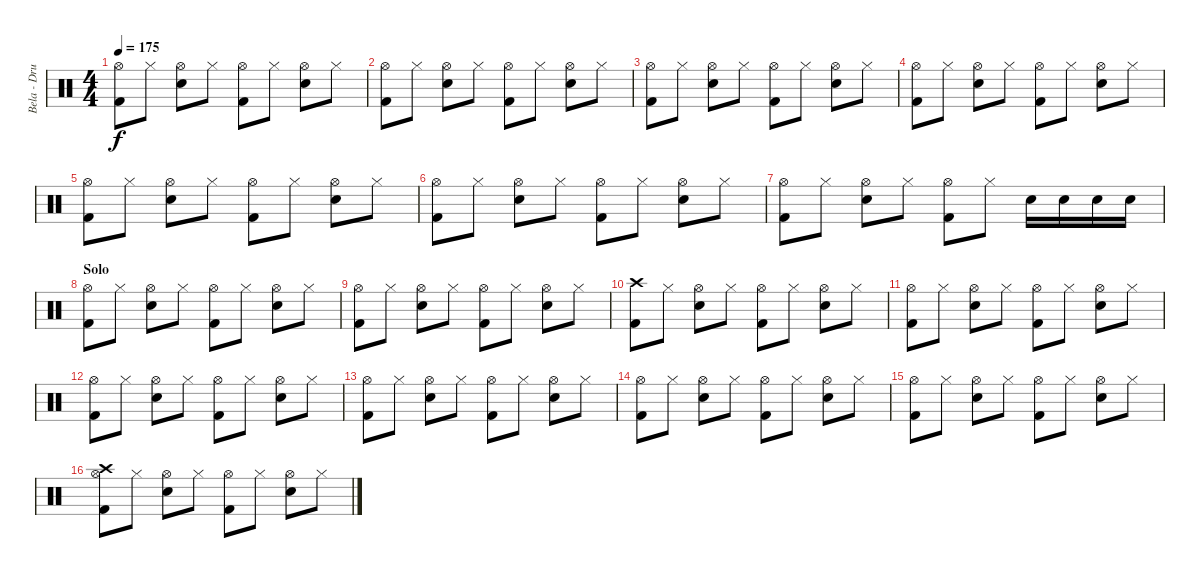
\track ("Bela - Drums" "Bela - Dru") {instrument percussion}
\staff {score}
\articulation defaults
\ts (4 4)
\tempo 175
\clef neutral
\ks c
("Hi-Hat (open)" "Kick (hit) 2").8{dy f} "Hi-Hat (closed)".8 ("Hi-Hat (open)" "Electric Snare (hit)").8 "Hi-Hat (closed)".8 ("Hi-Hat (open)" "Kick (hit) 2").8 "Hi-Hat (closed)".8 ("Hi-Hat (open)" "Electric Snare (hit)").8 "Hi-Hat (closed)".8 |
("Hi-Hat (open)" "Kick (hit) 2").8 "Hi-Hat (closed)".8 ("Hi-Hat (open)" "Electric Snare (hit)").8 "Hi-Hat (closed)".8 ("Hi-Hat (open)" "Kick (hit) 2").8 "Hi-Hat (closed)".8 ("Hi-Hat (open)" "Electric Snare (hit)").8 "Hi-Hat (closed)".8 |
("Hi-Hat (open)" "Kick (hit) 2").8 "Hi-Hat (closed)".8 ("Hi-Hat (open)" "Electric Snare (hit)").8 "Hi-Hat (closed)".8 ("Hi-Hat (open)" "Kick (hit) 2").8 "Hi-Hat (closed)".8 ("Hi-Hat (open)" "Electric Snare (hit)").8 "Hi-Hat (closed)".8 |
("Hi-Hat (open)" "Kick (hit) 2").8 "Hi-Hat (closed)".8 ("Hi-Hat (open)" "Electric Snare (hit)").8 "Hi-Hat (closed)".8 ("Hi-Hat (open)" "Kick (hit) 2").8 "Hi-Hat (closed)".8 ("Hi-Hat (open)" "Electric Snare (hit)").8 "Hi-Hat (closed)".8 |
("Hi-Hat (open)" "Kick (hit) 2").8 "Hi-Hat (closed)".8 ("Hi-Hat (open)" "Electric Snare (hit)").8 "Hi-Hat (closed)".8 ("Hi-Hat (open)" "Kick (hit) 2").8 "Hi-Hat (closed)".8 ("Hi-Hat (open)" "Electric Snare (hit)").8 "Hi-Hat (closed)".8 |
("Hi-Hat (open)" "Kick (hit) 2").8 "Hi-Hat (closed)".8 ("Hi-Hat (open)" "Electric Snare (hit)").8 "Hi-Hat (closed)".8 ("Hi-Hat (open)" "Kick (hit) 2").8 "Hi-Hat (closed)".8 ("Hi-Hat (open)" "Electric Snare (hit)").8 "Hi-Hat (closed)".8 |
("Hi-Hat (open)" "Kick (hit) 2").8 "Hi-Hat (closed)".8 ("Hi-Hat (open)" "Electric Snare (hit)").8 "Hi-Hat (closed)".8 ("Hi-Hat (open)" "Kick (hit) 2").8 "Hi-Hat (closed)".8 "Electric Snare (hit)".16 "Electric Snare (hit)".16 "Electric Snare (hit)".16 "Electric Snare (hit)".16 |
\section ("" "Solo")
("Hi-Hat (open)" "Kick (hit) 2").8 "Hi-Hat (closed)".8 ("Hi-Hat (open)" "Electric Snare (hit)").8 "Hi-Hat (closed)".8 ("Hi-Hat (open)" "Kick (hit) 2").8 "Hi-Hat (closed)".8 ("Hi-Hat (open)" "Electric Snare (hit)").8 "Hi-Hat (closed)".8 |
("Hi-Hat (open)" "Kick (hit) 2").8 "Hi-Hat (closed)".8 ("Hi-Hat (open)" "Electric Snare (hit)").8 "Hi-Hat (closed)".8 ("Hi-Hat (open)" "Kick (hit) 2").8 "Hi-Hat (closed)".8 ("Hi-Hat (open)" "Electric Snare (hit)").8 "Hi-Hat (closed)".8 |
("Crash high (hit)" "Kick (hit) 2").8 "Hi-Hat (closed)".8 ("Hi-Hat (open)" "Electric Snare (hit)").8 "Hi-Hat (closed)".8 ("Hi-Hat (open)" "Kick (hit) 2").8 "Hi-Hat (closed)".8 ("Hi-Hat (open)" "Electric Snare (hit)").8 "Hi-Hat (closed)".8 |
("Hi-Hat (open)" "Kick (hit) 2").8 "Hi-Hat (closed)".8 ("Hi-Hat (open)" "Electric Snare (hit)").8 "Hi-Hat (closed)".8 ("Hi-Hat (open)" "Kick (hit) 2").8 "Hi-Hat (closed)".8 ("Hi-Hat (open)" "Electric Snare (hit)").8 "Hi-Hat (closed)".8 |
("Hi-Hat (open)" "Kick (hit) 2").8 "Hi-Hat (closed)".8 ("Hi-Hat (open)" "Electric Snare (hit)").8 "Hi-Hat (closed)".8 ("Hi-Hat (open)" "Kick (hit) 2").8 "Hi-Hat (closed)".8 ("Hi-Hat (open)" "Electric Snare (hit)").8 "Hi-Hat (closed)".8 |
("Hi-Hat (open)" "Kick (hit) 2").8 "Hi-Hat (closed)".8 ("Hi-Hat (open)" "Electric Snare (hit)").8 "Hi-Hat (closed)".8 ("Hi-Hat (open)" "Kick (hit) 2").8 "Hi-Hat (closed)".8 ("Hi-Hat (open)" "Electric Snare (hit)").8 "Hi-Hat (closed)".8 |
("Hi-Hat (open)" "Kick (hit) 2").8 "Hi-Hat (closed)".8 ("Hi-Hat (open)" "Electric Snare (hit)").8 "Hi-Hat (closed)".8 ("Hi-Hat (open)" "Kick (hit) 2").8 "Hi-Hat (closed)".8 ("Hi-Hat (open)" "Electric Snare (hit)").8 "Hi-Hat (closed)".8 |
("Hi-Hat (open)" "Kick (hit) 2").8 "Hi-Hat (closed)".8 ("Hi-Hat (open)" "Electric Snare (hit)").8 "Hi-Hat (closed)".8 ("Hi-Hat (open)" "Kick (hit) 2").8 "Hi-Hat (closed)".8 ("Hi-Hat (open)" "Electric Snare (hit)").8 "Hi-Hat (closed)".8 |
("Hi-Hat (open)" "Crash high (hit)" "Kick (hit) 2").8 "Hi-Hat (closed)".8 ("Hi-Hat (open)" "Electric Snare (hit)").8 "Hi-Hat (closed)".8 ("Hi-Hat (open)" "Kick (hit) 2").8 "Hi-Hat (closed)".8 ("Hi-Hat (open)" "Electric Snare (hit)").8 "Hi-Hat (closed)".8
